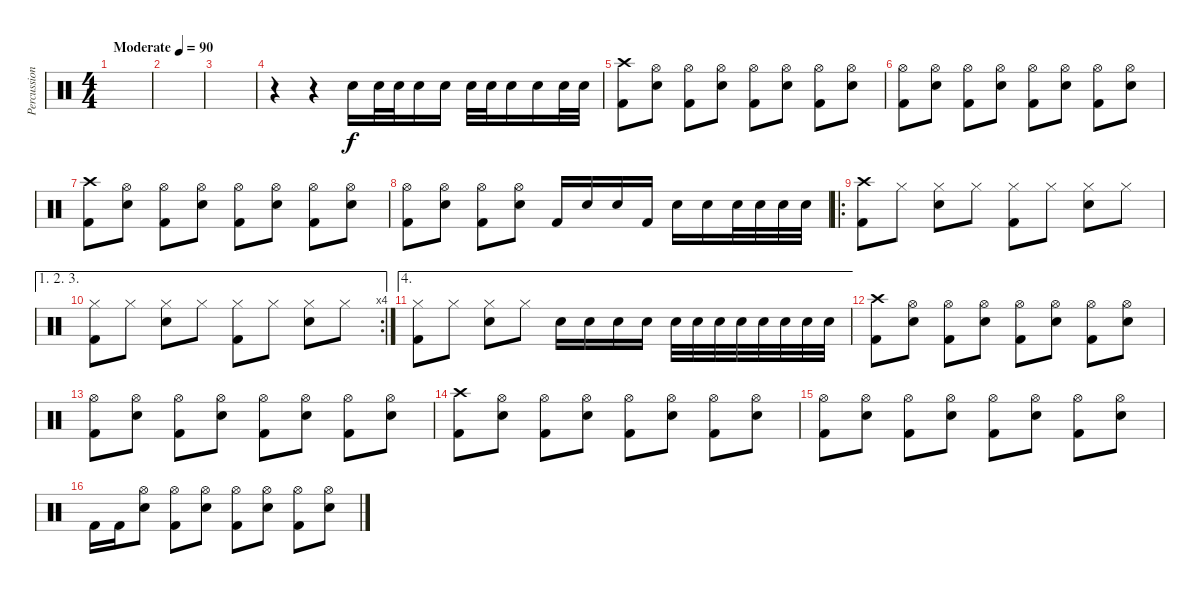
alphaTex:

\track ("Percussion" "Percussion") {instrument percussion}
\staff {score}
\articulation defaults
\ts (4 4)
\tempo (90 "Moderate")
\clef neutral
\ks c
|
|
|
r.4 r.4 "Snare (hit) 2".16 "Snare (hit) 2".32 "Snare (hit) 2".32 "Snare (hit) 2".16 "Snare (hit) 2".16 "Snare (hit) 2".32 "Snare (hit) 2".32 "Snare (hit) 2".16 "Snare (hit) 2".16 "Snare (hit) 2".32 "Snare (hit) 2".32 |
("Crash high (hit)" "Kick (hit) 2").8 ("Hi-Hat (open)" "Snare (hit) 2").8 ("Hi-Hat (open)" "Kick (hit) 2").8 ("Hi-Hat (open)" "Snare (hit) 2").8 ("Hi-Hat (open)" "Kick (hit) 2").8 ("Hi-Hat (open)" "Snare (hit) 2").8 ("Hi-Hat (open)" "Kick (hit) 2").8 ("Hi-Hat (open)" "Snare (hit) 2").8 |
("Hi-Hat (open)" "Kick (hit) 2").8 ("Hi-Hat (open)" "Snare (hit) 2").8 ("Hi-Hat (open)" "Kick (hit) 2").8 ("Hi-Hat (open)" "Snare (hit) 2").8 ("Hi-Hat (open)" "Kick (hit) 2").8 ("Hi-Hat (open)" "Snare (hit) 2").8 ("Hi-Hat (open)" "Kick (hit) 2").8 ("Hi-Hat (open)" "Snare (hit) 2").8 |
("Crash high (hit)" "Kick (hit) 2").8 ("Hi-Hat (open)" "Snare (hit) 2").8 ("Hi-Hat (open)" "Kick (hit) 2").8 ("Hi-Hat (open)" "Snare (hit) 2").8 ("Hi-Hat (open)" "Kick (hit) 2").8 ("Hi-Hat (open)" "Snare (hit) 2").8 ("Hi-Hat (open)" "Kick (hit) 2").8 ("Hi-Hat (open)" "Snare (hit) 2").8 |
("Hi-Hat (open)" "Kick (hit) 2").8 ("Hi-Hat (open)" "Snare (hit) 2").8 ("Hi-Hat (open)" "Kick (hit) 2").8 ("Hi-Hat (open)" "Snare (hit) 2").8 "Kick (hit) 2".16 "Snare (hit) 2".16 "Snare (hit) 2".16 "Kick (hit) 2".16 "Snare (hit) 2".16 "Snare (hit) 2".16 "Snare (hit) 2".32 "Snare (hit) 2".32 "Snare (hit) 2".32 "Snare (hit) 2".32 |
\ro
("Crash high (hit)" "Kick (hit) 2").8 "Hi-Hat (closed)".8 ("Hi-Hat (closed)" "Snare (hit) 2").8 "Hi-Hat (closed)".8 ("Hi-Hat (closed)" "Kick (hit) 2").8 "Hi-Hat (closed)".8 ("Hi-Hat (closed)" "Snare (hit) 2").8 "Hi-Hat (closed)".8 |
\ae (1 2 3)
\rc 4
("Hi-Hat (closed)" "Kick (hit) 2").8 "Hi-Hat (closed)".8 ("Hi-Hat (closed)" "Snare (hit) 2").8 "Hi-Hat (closed)".8 ("Hi-Hat (closed)" "Kick (hit) 2").8 "Hi-Hat (closed)".8 ("Hi-Hat (closed)" "Snare (hit) 2").8 "Hi-Hat (closed)".8 |
\ae 4
("Hi-Hat (closed)" "Kick (hit) 2").8 "Hi-Hat (closed)".8 ("Hi-Hat (closed)" "Snare (hit) 2").8 "Hi-Hat (closed)".8 "Snare (hit) 2".16 "Snare (hit) 2".16 "Snare (hit) 2".16 "Snare (hit) 2".16 "Snare (hit) 2".32 "Snare (hit) 2".32 "Snare (hit) 2".32 "Snare (hit) 2".32 "Snare (hit) 2".32 "Snare (hit) 2".32 "Snare (hit) 2".32 "Snare (hit) 2".32 |
("Crash high (hit)" "Kick (hit) 2").8 ("Hi-Hat (open)" "Snare (hit) 2").8 ("Hi-Hat (open)" "Kick (hit) 2").8 ("Hi-Hat (open)" "Snare (hit) 2").8 ("Hi-Hat (open)" "Kick (hit) 2").8 ("Hi-Hat (open)" "Snare (hit) 2").8 ("Hi-Hat (open)" "Kick (hit) 2").8 ("Hi-Hat (open)" "Snare (hit) 2").8 |
("Hi-Hat (open)" "Kick (hit) 2").8 ("Hi-Hat (open)" "Snare (hit) 2").8 ("Hi-Hat (open)" "Kick (hit) 2").8 ("Hi-Hat (open)" "Snare (hit) 2").8 ("Hi-Hat (open)" "Kick (hit) 2").8 ("Hi-Hat (open)" "Snare (hit) 2").8 ("Hi-Hat (open)" "Kick (hit) 2").8 ("Hi-Hat (open)" "Snare (hit) 2").8 |
("Crash high (hit)" "Kick (hit) 2").8 ("Hi-Hat (open)" "Snare (hit) 2").8 ("Hi-Hat (open)" "Kick (hit) 2").8 ("Hi-Hat (open)" "Snare (hit) 2").8 ("Hi-Hat (open)" "Kick (hit) 2").8 ("Hi-Hat (open)" "Snare (hit) 2").8 ("Hi-Hat (open)" "Kick (hit) 2").8 ("Hi-Hat (open)" "Snare (hit) 2").8 |
("Hi-Hat (open)" "Kick (hit) 2").8 ("Hi-Hat (open)" "Snare (hit) 2").8 ("Hi-Hat (open)" "Kick (hit) 2").8 ("Hi-Hat (open)" "Snare (hit) 2").8 ("Hi-Hat (open)" "Kick (hit) 2").8 ("Hi-Hat (open)" "Snare (hit) 2").8 ("Hi-Hat (open)" "Kick (hit) 2").8 ("Hi-Hat (open)" "Snare (hit) 2").8 |
"Kick (hit) 2".16 "Kick (hit) 2".16 ("Hi-Hat (open)" "Snare (hit) 2").8 ("Hi-Hat (open)" "Kick (hit) 2").8 ("Hi-Hat (open)" "Snare (hit) 2").8 ("Hi-Hat (open)" "Kick (hit) 2").8 ("Hi-Hat (open)" "Snare (hit) 2").8 ("Hi-Hat (open)" "Kick (hit) 2").8 ("Hi-Hat (open)" "Snare (hit) 2").8
